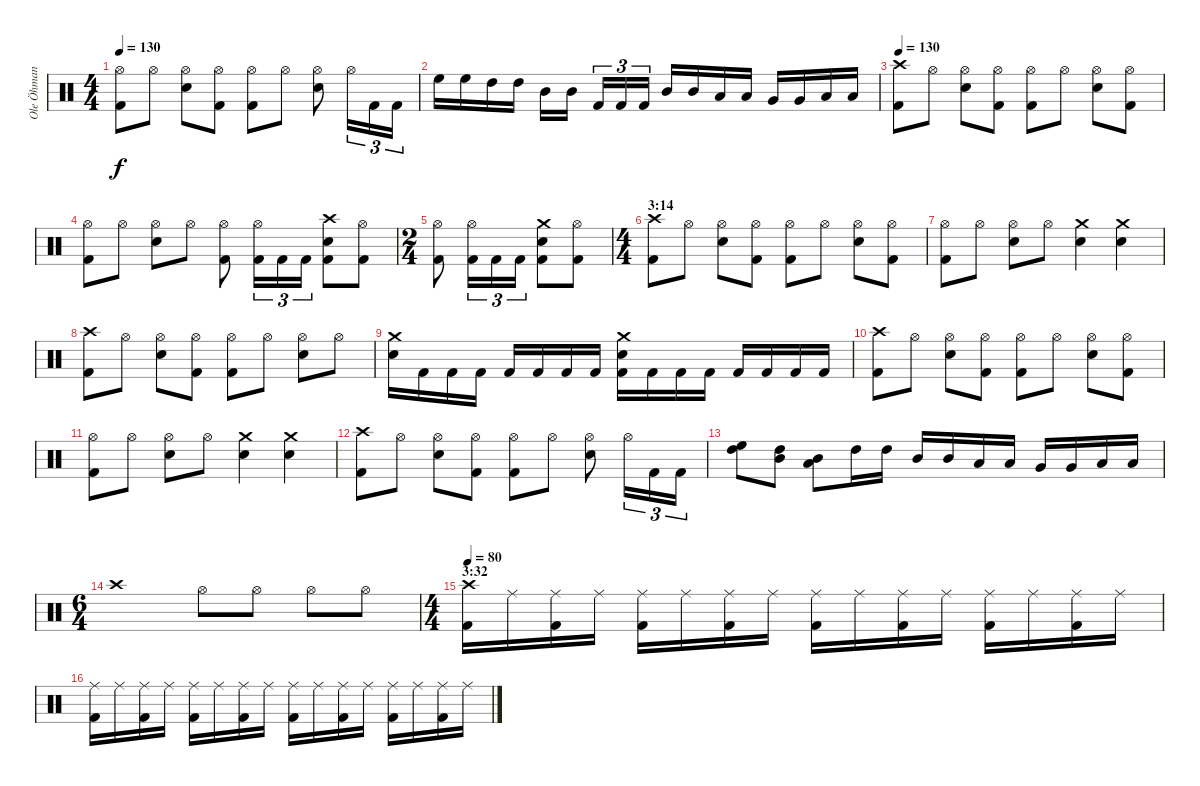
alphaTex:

\track ("Ole Öhman" "Ole Öhman") {instrument percussion}
\staff {score}
\articulation defaults
\ts (4 4)
\tempo 130
\clef neutral
\ks c
("Hi-Hat (open)" "Kick (hit) 2").8{dy f} "Hi-Hat (open)".8 ("Hi-Hat (open)" "Electric Snare (hit)").8 ("Hi-Hat (open)" "Kick (hit) 2").8 ("Hi-Hat (open)" "Kick (hit) 2").8 "Hi-Hat (open)".8 ("Hi-Hat (open)" "Electric Snare (hit)").8 "Hi-Hat (open)".16{tu (3 2)} "Kick (hit) 2".16{tu (3 2)} "Kick (hit) 2".16{tu (3 2)} |
"High Floor Tom (hit)".16 "High Floor Tom (hit)".16 "High Tom (hit)".16 "High Tom (hit)".16 "Mid Tom (hit)".16 "Mid Tom (hit)".16 "Kick (hit) 2".16{tu (3 2)} "Kick (hit) 2".16{tu (3 2)} "Kick (hit) 2".16{tu (3 2)} "Mid Tom (hit)".16 "Mid Tom (hit)".16 "Low Tom (hit)".16 "Low Tom (hit)".16 "Very Low Tom (hit)".16 "Very Low Tom (hit)".16 "Low Floor Tom (hit)".16 "Low Floor Tom (hit)".16 |
\tempo 130
("Crash high (hit)" "Kick (hit) 2").8 "Hi-Hat (open)".8 ("Hi-Hat (open)" "Electric Snare (hit)").8 ("Hi-Hat (open)" "Kick (hit) 2").8 ("Hi-Hat (open)" "Kick (hit) 2").8 "Hi-Hat (open)".8 ("Hi-Hat (open)" "Electric Snare (hit)").8 ("Hi-Hat (open)" "Kick (hit) 2").8 |
("Hi-Hat (open)" "Kick (hit) 2").8 "Hi-Hat (open)".8 ("Hi-Hat (open)" "Electric Snare (hit)").8 "Hi-Hat (open)".8 ("Hi-Hat (open)" "Kick (hit) 2").8 ("Hi-Hat (open)" "Kick (hit) 2").16{tu (3 2)} "Kick (hit) 2".16{tu (3 2)} "Kick (hit) 2".16{tu (3 2)} ("Crash high (hit)" "Electric Snare (hit)" "Kick (hit) 2").8 ("Hi-Hat (open)" "Kick (hit) 2").8 |
\ts (2 4)
("Hi-Hat (open)" "Kick (hit) 2").8 ("Hi-Hat (open)" "Kick (hit) 2").16{tu (3 2)} "Kick (hit) 2".16{tu (3 2)} "Kick (hit) 2".16{tu (3 2)} ("Crash medium (hit)" "Electric Snare (hit)" "Kick (hit) 2").8 ("Hi-Hat (open)" "Kick (hit) 2").8 |
\ts (4 4)
\section ("" "3:14")
("Crash high (hit)" "Kick (hit) 2").8 "Hi-Hat (open)".8 ("Hi-Hat (open)" "Electric Snare (hit)").8 ("Hi-Hat (open)" "Kick (hit) 2").8 ("Hi-Hat (open)" "Kick (hit) 2").8 "Hi-Hat (open)".8 ("Hi-Hat (open)" "Electric Snare (hit)").8 ("Hi-Hat (open)" "Kick (hit) 2").8 |
("Hi-Hat (open)" "Kick (hit) 2").8 "Hi-Hat (open)".8 ("Hi-Hat (open)" "Electric Snare (hit)").8 "Hi-Hat (open)".8 ("Crash medium (hit)" "Electric Snare (hit)").4 ("Crash medium (hit)" "Electric Snare (hit)").4 |
("Crash high (hit)" "Kick (hit) 2").8 "Hi-Hat (open)".8 ("Hi-Hat (open)" "Electric Snare (hit)").8 ("Hi-Hat (open)" "Kick (hit) 2").8 ("Hi-Hat (open)" "Kick (hit) 2").8 "Hi-Hat (open)".8 ("Hi-Hat (open)" "Electric Snare (hit)").8 "Hi-Hat (open)".8 |
("Crash medium (hit)" "Electric Snare (hit)").16 "Kick (hit) 2".16 "Kick (hit) 2".16 "Kick (hit) 2".16 "Kick (hit) 2".16 "Kick (hit) 2".16 "Kick (hit) 2".16 "Kick (hit) 2".16 ("Crash medium (hit)" "Electric Snare (hit)" "Kick (hit) 2").16 "Kick (hit) 2".16 "Kick (hit) 2".16 "Kick (hit) 2".16 "Kick (hit) 2".16 "Kick (hit) 2".16 "Kick (hit) 2".16 "Kick (hit) 2".16 |
("Crash high (hit)" "Kick (hit) 2").8 "Hi-Hat (open)".8 ("Hi-Hat (open)" "Electric Snare (hit)").8 ("Hi-Hat (open)" "Kick (hit) 2").8 ("Hi-Hat (open)" "Kick (hit) 2").8 "Hi-Hat (open)".8 ("Hi-Hat (open)" "Electric Snare (hit)").8 ("Hi-Hat (open)" "Kick (hit) 2").8 |
("Hi-Hat (open)" "Kick (hit) 2").8 "Hi-Hat (open)".8 ("Hi-Hat (open)" "Electric Snare (hit)").8 "Hi-Hat (open)".8 ("Crash medium (hit)" "Electric Snare (hit)").4 ("Crash medium (hit)" "Electric Snare (hit)").4 |
("Crash high (hit)" "Kick (hit) 2").8 "Hi-Hat (open)".8 ("Hi-Hat (open)" "Electric Snare (hit)").8 ("Hi-Hat (open)" "Kick (hit) 2").8 ("Hi-Hat (open)" "Kick (hit) 2").8 "Hi-Hat (open)".8 ("Hi-Hat (open)" "Electric Snare (hit)").8 "Hi-Hat (open)".16{tu (3 2)} "Kick (hit) 2".16{tu (3 2)} "Kick (hit) 2".16{tu (3 2)} |
("High Floor Tom (hit)" "High Tom (hit)").8 ("High Tom (hit)" "Mid Tom (hit)").8 ("Mid Tom (hit)" "Low Tom (hit)").8 "High Tom (hit)".16 "High Tom (hit)".16 "Mid Tom (hit)".16 "Mid Tom (hit)".16 "Low Tom (hit)".16 "Low Tom (hit)".16 "Very Low Tom (hit)".16 "Very Low Tom (hit)".16 "Low Floor Tom (hit)".16 "Low Floor Tom (hit)".16 |
\ts (6 4)
"Crash high (hit)".1 "Hi-Hat (open)".8 "Hi-Hat (open)".8 "Hi-Hat (open)".8 "Hi-Hat (open)".8 |
\ts (4 4)
\section ("" "3:32")
\tempo 80
("Crash high (hit)" "Kick (hit) 2").16 "Ride (middle)".16 ("Ride (middle)" "Kick (hit) 2").16 "Ride (middle)".16 ("Ride (middle)" "Kick (hit) 2").16 "Ride (middle)".16 ("Ride (middle)" "Kick (hit) 2").16 "Ride (middle)".16 ("Ride (middle)" "Kick (hit) 2").16 "Ride (middle)".16 ("Ride (middle)" "Kick (hit) 2").16 "Ride (middle)".16 ("Ride (middle)" "Kick (hit) 2").16 "Ride (middle)".16 ("Ride (middle)" "Kick (hit) 2").16 "Ride (middle)".16 |
("Ride (middle)" "Kick (hit) 2").16 "Ride (middle)".16 ("Ride (middle)" "Kick (hit) 2").16 "Ride (middle)".16 ("Ride (middle)" "Kick (hit) 2").16 "Ride (middle)".16 ("Ride (middle)" "Kick (hit) 2").16 "Ride (middle)".16 ("Ride (middle)" "Kick (hit) 2").16 "Ride (middle)".16 ("Ride (middle)" "Kick (hit) 2").16 "Ride (middle)".16 ("Ride (middle)" "Kick (hit) 2").16 "Ride (middle)".16 ("Ride (middle)" "Kick (hit) 2").16 "Ride (middle)".16
